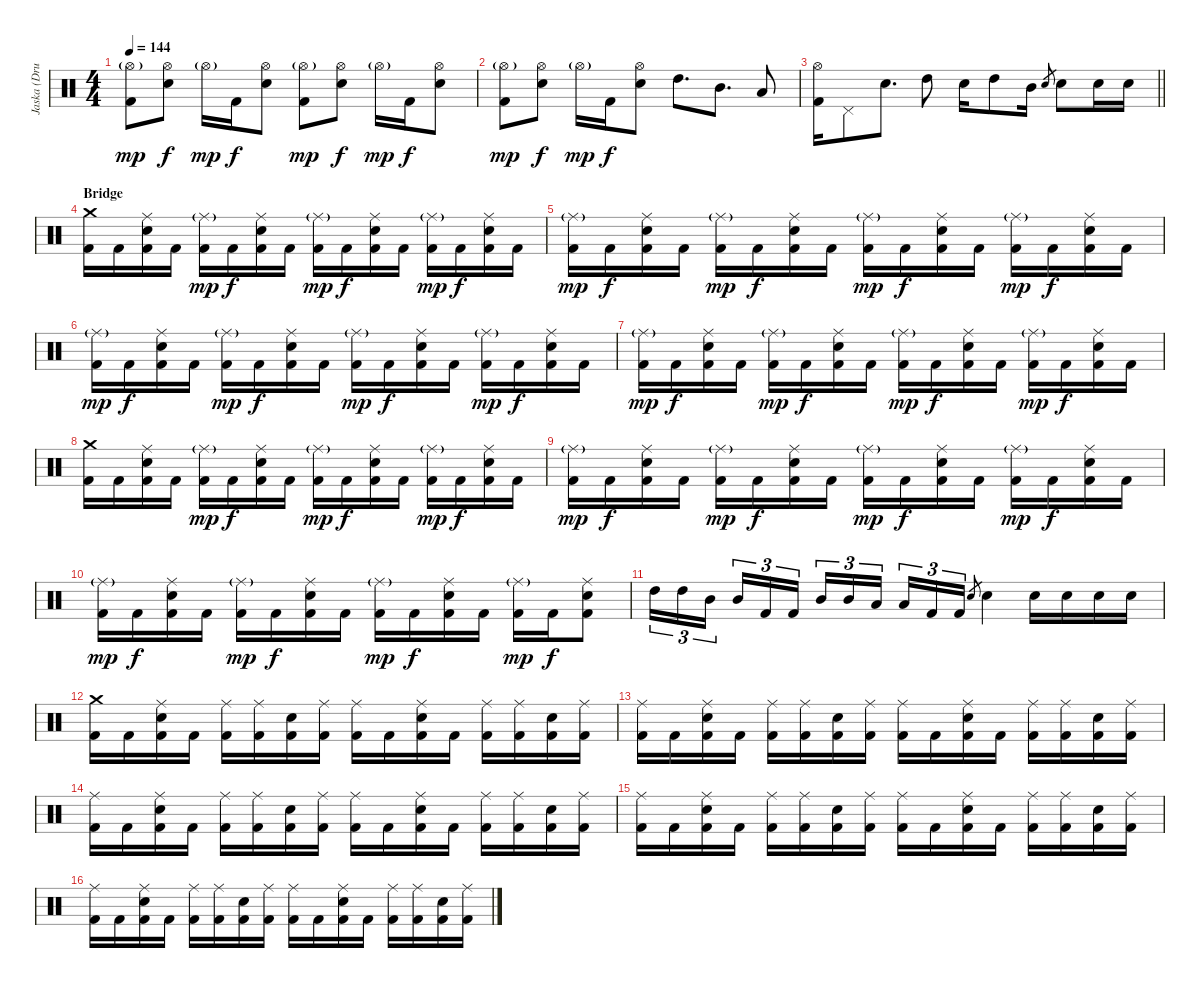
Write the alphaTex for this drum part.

\track ("Jaska (Drums)" "Jaska (Dru") {instrument percussion}
\staff {score}
\articulation defaults
\ts (4 4)
\tempo 144
\clef neutral
\ks c
("Hi-Hat (open)"{g} "Kick (hit) 2").8{dy mp} ("Hi-Hat (open)" "Electric Snare (hit)").8{dy f} "Hi-Hat (open)"{g}.16{dy mp} "Kick (hit) 2".16{dy f} ("Hi-Hat (open)" "Electric Snare (hit)").8 ("Hi-Hat (open)"{g} "Kick (hit) 2").8{dy mp} ("Hi-Hat (open)" "Electric Snare (hit)").8{dy f} "Hi-Hat (open)"{g}.16{dy mp} "Kick (hit) 2".16{dy f} ("Hi-Hat (open)" "Electric Snare (hit)").8 |
("Hi-Hat (open)"{g} "Kick (hit) 2").8{dy mp} ("Hi-Hat (open)" "Electric Snare (hit)").8{dy f} "Hi-Hat (open)"{g}.16{dy mp} "Kick (hit) 2".16{dy f} ("Hi-Hat (open)" "Electric Snare (hit)").8 "High Tom (hit)".8{d} "Mid Tom (hit)".8{d} "Low Tom (hit)".8 |
\barLineRight lightlight
("Hi-Hat (open)" "Kick (hit) 2").16 "Pedal Hi-Hat (hit)".8 "Electric Snare (hit)".8{d} "High Tom (hit)".8 "Electric Snare (hit)".16 "High Tom (hit)".8 "Mid Tom (hit)".16 "Electric Snare (hit)".8{gr} "Electric Snare (hit)".8 "Electric Snare (hit)".16 "Electric Snare (hit)".16 |
\section ("" "Bridge")
("Crash medium (hit)" "Kick (hit) 2").16 "Kick (hit) 2".16 ("Ride (middle)" "Electric Snare (hit)" "Kick (hit) 2").16 "Kick (hit) 2".16 ("Ride (middle)"{g} "Kick (hit) 2").16{dy mp} "Kick (hit) 2".16{dy f} ("Ride (middle)" "Electric Snare (hit)" "Kick (hit) 2").16 "Kick (hit) 2".16 ("Ride (middle)"{g} "Kick (hit) 2").16{dy mp} "Kick (hit) 2".16{dy f} ("Ride (middle)" "Electric Snare (hit)" "Kick (hit) 2").16 "Kick (hit) 2".16 ("Ride (middle)"{g} "Kick (hit) 2").16{dy mp} "Kick (hit) 2".16{dy f} ("Ride (middle)" "Electric Snare (hit)" "Kick (hit) 2").16 "Kick (hit) 2".16 |
("Ride (middle)"{g} "Kick (hit) 2").16{dy mp} "Kick (hit) 2".16{dy f} ("Ride (middle)" "Electric Snare (hit)" "Kick (hit) 2").16 "Kick (hit) 2".16 ("Ride (middle)"{g} "Kick (hit) 2").16{dy mp} "Kick (hit) 2".16{dy f} ("Ride (middle)" "Electric Snare (hit)" "Kick (hit) 2").16 "Kick (hit) 2".16 ("Ride (middle)"{g} "Kick (hit) 2").16{dy mp} "Kick (hit) 2".16{dy f} ("Ride (middle)" "Electric Snare (hit)" "Kick (hit) 2").16 "Kick (hit) 2".16 ("Ride (middle)"{g} "Kick (hit) 2").16{dy mp} "Kick (hit) 2".16{dy f} ("Ride (middle)" "Electric Snare (hit)" "Kick (hit) 2").16 "Kick (hit) 2".16 |
("Ride (middle)"{g} "Kick (hit) 2").16{dy mp} "Kick (hit) 2".16{dy f} ("Ride (middle)" "Electric Snare (hit)" "Kick (hit) 2").16 "Kick (hit) 2".16 ("Ride (middle)"{g} "Kick (hit) 2").16{dy mp} "Kick (hit) 2".16{dy f} ("Ride (middle)" "Electric Snare (hit)" "Kick (hit) 2").16 "Kick (hit) 2".16 ("Ride (middle)"{g} "Kick (hit) 2").16{dy mp} "Kick (hit) 2".16{dy f} ("Ride (middle)" "Electric Snare (hit)" "Kick (hit) 2").16 "Kick (hit) 2".16 ("Ride (middle)"{g} "Kick (hit) 2").16{dy mp} "Kick (hit) 2".16{dy f} ("Ride (middle)" "Electric Snare (hit)" "Kick (hit) 2").16 "Kick (hit) 2".16 |
("Ride (middle)"{g} "Kick (hit) 2").16{dy mp} "Kick (hit) 2".16{dy f} ("Ride (middle)" "Electric Snare (hit)" "Kick (hit) 2").16 "Kick (hit) 2".16 ("Ride (middle)"{g} "Kick (hit) 2").16{dy mp} "Kick (hit) 2".16{dy f} ("Ride (middle)" "Electric Snare (hit)" "Kick (hit) 2").16 "Kick (hit) 2".16 ("Ride (middle)"{g} "Kick (hit) 2").16{dy mp} "Kick (hit) 2".16{dy f} ("Ride (middle)" "Electric Snare (hit)" "Kick (hit) 2").16 "Kick (hit) 2".16 ("Ride (middle)"{g} "Kick (hit) 2").16{dy mp} "Kick (hit) 2".16{dy f} ("Ride (middle)" "Electric Snare (hit)" "Kick (hit) 2").16 "Kick (hit) 2".16 |
("Crash medium (hit)" "Kick (hit) 2").16 "Kick (hit) 2".16 ("Ride (middle)" "Electric Snare (hit)" "Kick (hit) 2").16 "Kick (hit) 2".16 ("Ride (middle)"{g} "Kick (hit) 2").16{dy mp} "Kick (hit) 2".16{dy f} ("Ride (middle)" "Electric Snare (hit)" "Kick (hit) 2").16 "Kick (hit) 2".16 ("Ride (middle)"{g} "Kick (hit) 2").16{dy mp} "Kick (hit) 2".16{dy f} ("Ride (middle)" "Electric Snare (hit)" "Kick (hit) 2").16 "Kick (hit) 2".16 ("Ride (middle)"{g} "Kick (hit) 2").16{dy mp} "Kick (hit) 2".16{dy f} ("Ride (middle)" "Electric Snare (hit)" "Kick (hit) 2").16 "Kick (hit) 2".16 |
("Ride (middle)"{g} "Kick (hit) 2").16{dy mp} "Kick (hit) 2".16{dy f} ("Ride (middle)" "Electric Snare (hit)" "Kick (hit) 2").16 "Kick (hit) 2".16 ("Ride (middle)"{g} "Kick (hit) 2").16{dy mp} "Kick (hit) 2".16{dy f} ("Ride (middle)" "Electric Snare (hit)" "Kick (hit) 2").16 "Kick (hit) 2".16 ("Ride (middle)"{g} "Kick (hit) 2").16{dy mp} "Kick (hit) 2".16{dy f} ("Ride (middle)" "Electric Snare (hit)" "Kick (hit) 2").16 "Kick (hit) 2".16 ("Ride (middle)"{g} "Kick (hit) 2").16{dy mp} "Kick (hit) 2".16{dy f} ("Ride (middle)" "Electric Snare (hit)" "Kick (hit) 2").16 "Kick (hit) 2".16 |
("Ride (middle)"{g} "Kick (hit) 2").16{dy mp} "Kick (hit) 2".16{dy f} ("Ride (middle)" "Electric Snare (hit)" "Kick (hit) 2").16 "Kick (hit) 2".16 ("Ride (middle)"{g} "Kick (hit) 2").16{dy mp} "Kick (hit) 2".16{dy f} ("Ride (middle)" "Electric Snare (hit)" "Kick (hit) 2").16 "Kick (hit) 2".16 ("Ride (middle)"{g} "Kick (hit) 2").16{dy mp} "Kick (hit) 2".16{dy f} ("Ride (middle)" "Electric Snare (hit)" "Kick (hit) 2").16 "Kick (hit) 2".16 ("Ride (middle)"{g} "Kick (hit) 2").16{dy mp} "Kick (hit) 2".16{dy f} ("Ride (middle)" "Electric Snare (hit)" "Kick (hit) 2").8 |
"High Tom (hit)".16{tu (3 2)} "High Tom (hit)".16{tu (3 2)} "Mid Tom (hit)".16{tu (3 2) beam splitsecondary} "Mid Tom (hit)".16{tu (3 2)} "Kick (hit) 2".16{tu (3 2)} "Kick (hit) 2".16{tu (3 2)} "Mid Tom (hit)".16{tu (3 2)} "Mid Tom (hit)".16{tu (3 2)} "Low Tom (hit)".16{tu (3 2) beam splitsecondary} "Low Tom (hit)".16{tu (3 2)} "Kick (hit) 2".16{tu (3 2)} "Kick (hit) 2".16{tu (3 2)} "Electric Snare (hit)".8{gr} "Electric Snare (hit)".4 "Electric Snare (hit)".16 "Electric Snare (hit)".16 "Electric Snare (hit)".16 "Electric Snare (hit)".16 |
("Crash medium (hit)" "Kick (hit) 2").16 "Kick (hit) 2".16 ("Ride (middle)" "Electric Snare (hit)" "Kick (hit) 2").16 "Kick (hit) 2".16 ("Ride (middle)" "Kick (hit) 2").16 ("Ride (middle)" "Kick (hit) 2").16 ("Electric Snare (hit)" "Kick (hit) 2").16 ("Ride (middle)" "Kick (hit) 2").16 ("Ride (middle)" "Kick (hit) 2").16 "Kick (hit) 2".16 ("Ride (middle)" "Electric Snare (hit)" "Kick (hit) 2").16 "Kick (hit) 2".16 ("Ride (middle)" "Kick (hit) 2").16 ("Ride (middle)" "Kick (hit) 2").16 ("Electric Snare (hit)" "Kick (hit) 2").16 ("Ride (middle)" "Kick (hit) 2").16 |
("Ride (middle)" "Kick (hit) 2").16 "Kick (hit) 2".16 ("Ride (middle)" "Electric Snare (hit)" "Kick (hit) 2").16 "Kick (hit) 2".16 ("Ride (middle)" "Kick (hit) 2").16 ("Ride (middle)" "Kick (hit) 2").16 ("Electric Snare (hit)" "Kick (hit) 2").16 ("Ride (middle)" "Kick (hit) 2").16 ("Ride (middle)" "Kick (hit) 2").16 "Kick (hit) 2".16 ("Ride (middle)" "Electric Snare (hit)" "Kick (hit) 2").16 "Kick (hit) 2".16 ("Ride (middle)" "Kick (hit) 2").16 ("Ride (middle)" "Kick (hit) 2").16 ("Electric Snare (hit)" "Kick (hit) 2").16 ("Ride (middle)" "Kick (hit) 2").16 |
("Ride (middle)" "Kick (hit) 2").16 "Kick (hit) 2".16 ("Ride (middle)" "Electric Snare (hit)" "Kick (hit) 2").16 "Kick (hit) 2".16 ("Ride (middle)" "Kick (hit) 2").16 ("Ride (middle)" "Kick (hit) 2").16 ("Electric Snare (hit)" "Kick (hit) 2").16 ("Ride (middle)" "Kick (hit) 2").16 ("Ride (middle)" "Kick (hit) 2").16 "Kick (hit) 2".16 ("Ride (middle)" "Electric Snare (hit)" "Kick (hit) 2").16 "Kick (hit) 2".16 ("Ride (middle)" "Kick (hit) 2").16 ("Ride (middle)" "Kick (hit) 2").16 ("Electric Snare (hit)" "Kick (hit) 2").16 ("Ride (middle)" "Kick (hit) 2").16 |
("Ride (middle)" "Kick (hit) 2").16 "Kick (hit) 2".16 ("Ride (middle)" "Electric Snare (hit)" "Kick (hit) 2").16 "Kick (hit) 2".16 ("Ride (middle)" "Kick (hit) 2").16 ("Ride (middle)" "Kick (hit) 2").16 ("Electric Snare (hit)" "Kick (hit) 2").16 ("Ride (middle)" "Kick (hit) 2").16 ("Ride (middle)" "Kick (hit) 2").16 "Kick (hit) 2".16 ("Ride (middle)" "Electric Snare (hit)" "Kick (hit) 2").16 "Kick (hit) 2".16 ("Ride (middle)" "Kick (hit) 2").16 ("Ride (middle)" "Kick (hit) 2").16 ("Electric Snare (hit)" "Kick (hit) 2").16 ("Ride (middle)" "Kick (hit) 2").16 |
("Ride (middle)" "Kick (hit) 2").16 "Kick (hit) 2".16 ("Ride (middle)" "Electric Snare (hit)" "Kick (hit) 2").16 "Kick (hit) 2".16 ("Ride (middle)" "Kick (hit) 2").16 ("Ride (middle)" "Kick (hit) 2").16 ("Electric Snare (hit)" "Kick (hit) 2").16 ("Ride (middle)" "Kick (hit) 2").16 ("Ride (middle)" "Kick (hit) 2").16 "Kick (hit) 2".16 ("Ride (middle)" "Electric Snare (hit)" "Kick (hit) 2").16 "Kick (hit) 2".16 ("Ride (middle)" "Kick (hit) 2").16 ("Ride (middle)" "Kick (hit) 2").16 ("Electric Snare (hit)" "Kick (hit) 2").16 ("Ride (middle)" "Kick (hit) 2").16
